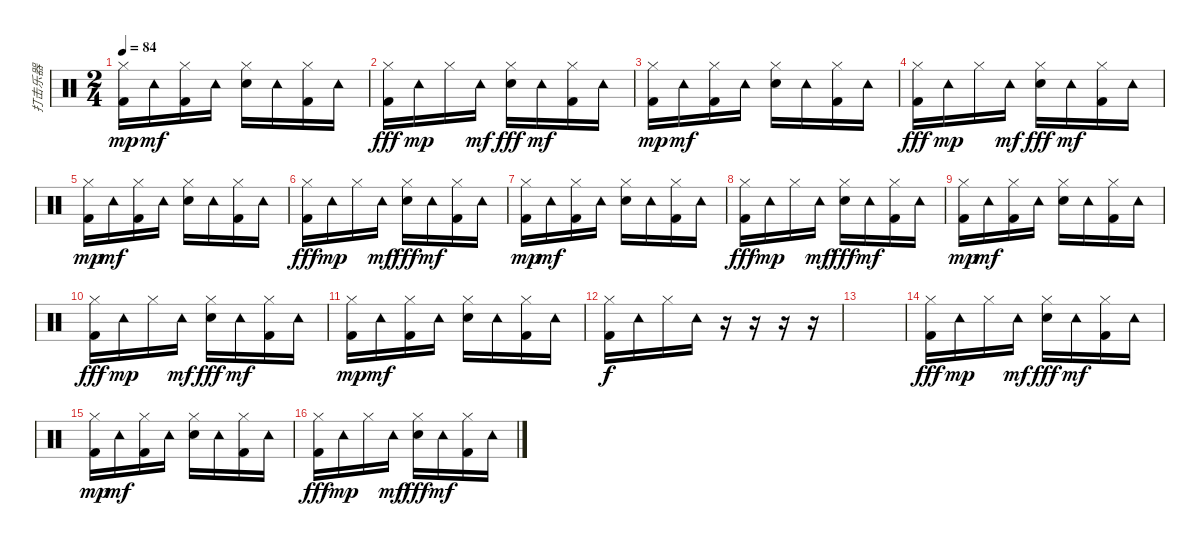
\track ("打击乐器" "打击乐器") {instrument percussion}
\staff {score}
\articulation defaults
\ts (2 4)
\tempo 84
\clef neutral
\ks c
("Hi-Hat (closed)" "Kick (hit) 2").16{dy mp} "Tambourine (hit)".16{dy mf} ("Hi-Hat (closed)" "Kick (hit) 2").16 "Tambourine (hit)".16 ("Hi-Hat (closed)" "Snare (hit) 2").16 "Tambourine (hit)".16 ("Hi-Hat (closed)" "Kick (hit) 2").16 "Tambourine (hit)".16 |
("Hi-Hat (closed)" "Kick (hit) 2").16{dy fff} "Tambourine (hit)".16{dy mp} "Hi-Hat (closed)".16 "Tambourine (hit)".16{dy mf} ("Hi-Hat (closed)" "Snare (hit) 2").16{dy fff} "Tambourine (hit)".16{dy mf} ("Hi-Hat (closed)" "Kick (hit) 2").16 "Tambourine (hit)".16 |
("Hi-Hat (closed)" "Kick (hit) 2").16{dy mp} "Tambourine (hit)".16{dy mf} ("Hi-Hat (closed)" "Kick (hit) 2").16 "Tambourine (hit)".16 ("Hi-Hat (closed)" "Snare (hit) 2").16 "Tambourine (hit)".16 ("Hi-Hat (closed)" "Kick (hit) 2").16 "Tambourine (hit)".16 |
("Hi-Hat (closed)" "Kick (hit) 2").16{dy fff} "Tambourine (hit)".16{dy mp} "Hi-Hat (closed)".16 "Tambourine (hit)".16{dy mf} ("Hi-Hat (closed)" "Snare (hit) 2").16{dy fff} "Tambourine (hit)".16{dy mf} ("Hi-Hat (closed)" "Kick (hit) 2").16 "Tambourine (hit)".16 |
("Hi-Hat (closed)" "Kick (hit) 2").16{dy mp} "Tambourine (hit)".16{dy mf} ("Hi-Hat (closed)" "Kick (hit) 2").16 "Tambourine (hit)".16 ("Hi-Hat (closed)" "Snare (hit) 2").16 "Tambourine (hit)".16 ("Hi-Hat (closed)" "Kick (hit) 2").16 "Tambourine (hit)".16 |
("Hi-Hat (closed)" "Kick (hit) 2").16{dy fff} "Tambourine (hit)".16{dy mp} "Hi-Hat (closed)".16 "Tambourine (hit)".16{dy mf} ("Hi-Hat (closed)" "Snare (hit) 2").16{dy fff} "Tambourine (hit)".16{dy mf} ("Hi-Hat (closed)" "Kick (hit) 2").16 "Tambourine (hit)".16 |
("Hi-Hat (closed)" "Kick (hit) 2").16{dy mp} "Tambourine (hit)".16{dy mf} ("Hi-Hat (closed)" "Kick (hit) 2").16 "Tambourine (hit)".16 ("Hi-Hat (closed)" "Snare (hit) 2").16 "Tambourine (hit)".16 ("Hi-Hat (closed)" "Kick (hit) 2").16 "Tambourine (hit)".16 |
("Hi-Hat (closed)" "Kick (hit) 2").16{dy fff} "Tambourine (hit)".16{dy mp} "Hi-Hat (closed)".16 "Tambourine (hit)".16{dy mf} ("Hi-Hat (closed)" "Snare (hit) 2").16{dy fff} "Tambourine (hit)".16{dy mf} ("Hi-Hat (closed)" "Kick (hit) 2").16 "Tambourine (hit)".16 |
("Hi-Hat (closed)" "Kick (hit) 2").16{dy mp} "Tambourine (hit)".16{dy mf} ("Hi-Hat (closed)" "Kick (hit) 2").16 "Tambourine (hit)".16 ("Hi-Hat (closed)" "Snare (hit) 2").16 "Tambourine (hit)".16 ("Hi-Hat (closed)" "Kick (hit) 2").16 "Tambourine (hit)".16 |
("Hi-Hat (closed)" "Kick (hit) 2").16{dy fff} "Tambourine (hit)".16{dy mp} "Hi-Hat (closed)".16 "Tambourine (hit)".16{dy mf} ("Hi-Hat (closed)" "Snare (hit) 2").16{dy fff} "Tambourine (hit)".16{dy mf} ("Hi-Hat (closed)" "Kick (hit) 2").16 "Tambourine (hit)".16 |
("Hi-Hat (closed)" "Kick (hit) 2").16{dy mp} "Tambourine (hit)".16{dy mf} ("Hi-Hat (closed)" "Kick (hit) 2").16 "Tambourine (hit)".16 ("Hi-Hat (closed)" "Snare (hit) 2").16 "Tambourine (hit)".16 ("Hi-Hat (closed)" "Kick (hit) 2").16 "Tambourine (hit)".16 |
("Hi-Hat (closed)" "Kick (hit) 2").16{dy f} "Tambourine (hit)".16 "Hi-Hat (closed)".16 "Tambourine (hit)".16 r.16 r.16 r.16 r.16 |
|
("Hi-Hat (closed)" "Kick (hit) 2").16{dy fff} "Tambourine (hit)".16{dy mp} "Hi-Hat (closed)".16 "Tambourine (hit)".16{dy mf} ("Hi-Hat (closed)" "Snare (hit) 2").16{dy fff} "Tambourine (hit)".16{dy mf} ("Hi-Hat (closed)" "Kick (hit) 2").16 "Tambourine (hit)".16 |
("Hi-Hat (closed)" "Kick (hit) 2").16{dy mp} "Tambourine (hit)".16{dy mf} ("Hi-Hat (closed)" "Kick (hit) 2").16 "Tambourine (hit)".16 ("Hi-Hat (closed)" "Snare (hit) 2").16 "Tambourine (hit)".16 ("Hi-Hat (closed)" "Kick (hit) 2").16 "Tambourine (hit)".16 |
("Hi-Hat (closed)" "Kick (hit) 2").16{dy fff} "Tambourine (hit)".16{dy mp} "Hi-Hat (closed)".16 "Tambourine (hit)".16{dy mf} ("Hi-Hat (closed)" "Snare (hit) 2").16{dy fff} "Tambourine (hit)".16{dy mf} ("Hi-Hat (closed)" "Kick (hit) 2").16 "Tambourine (hit)".16
